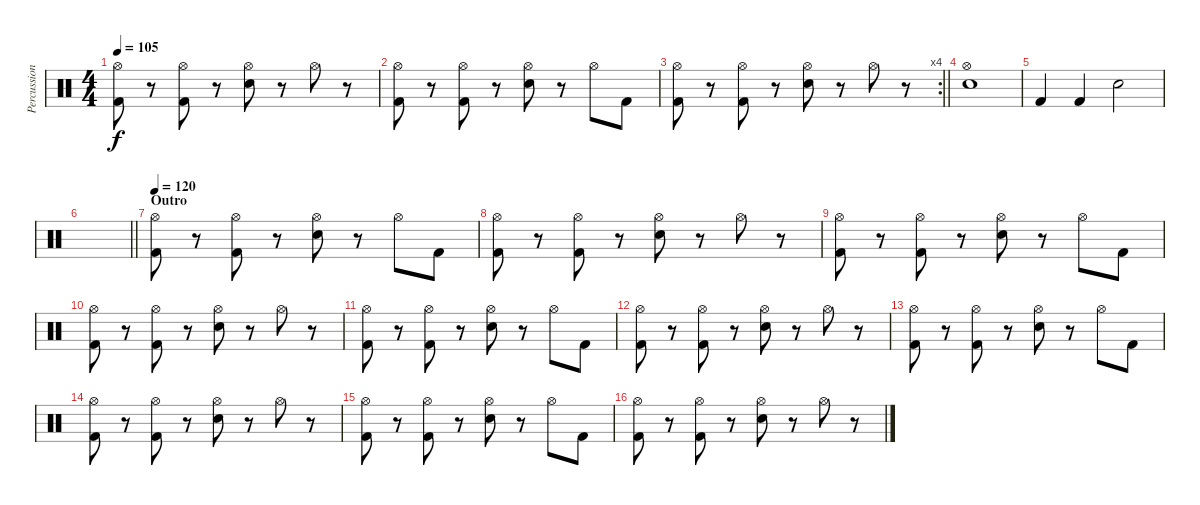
\track ("Percussion" "Percussion") {instrument percussion}
\staff {score}
\articulation defaults
\ts (4 4)
\tempo 105
\clef neutral
\ks c
("Hi-Hat (open)" "Kick (hit) 2").8{dy f} r.8 ("Hi-Hat (open)" "Kick (hit) 2").8 r.8 ("Hi-Hat (open)" "Electric Snare (hit)").8 r.8 "Hi-Hat (open)".8 r.8 |
("Hi-Hat (open)" "Kick (hit) 2").8 r.8 ("Hi-Hat (open)" "Kick (hit) 2").8 r.8 ("Hi-Hat (open)" "Electric Snare (hit)").8 r.8 "Hi-Hat (open)".8 "Kick (hit) 2".8 |
\rc 4
\barLineRight lightlight
("Hi-Hat (open)" "Kick (hit) 2").8 r.8 ("Hi-Hat (open)" "Kick (hit) 2").8 r.8 ("Hi-Hat (open)" "Electric Snare (hit)").8 r.8 "Hi-Hat (open)".8 r.8 |
("Hi-Hat (open)" "Electric Snare (hit)").1 |
"Kick (hit) 2".4 "Kick (hit) 2".4 "Electric Snare (hit)".2 |
\barLineRight lightlight
|
\section ("" "Outro")
\tempo 120
("Hi-Hat (open)" "Kick (hit) 2").8 r.8 ("Hi-Hat (open)" "Kick (hit) 2").8 r.8 ("Hi-Hat (open)" "Electric Snare (hit)").8 r.8 "Hi-Hat (open)".8 "Kick (hit) 2".8 |
("Hi-Hat (open)" "Kick (hit) 2").8 r.8 ("Hi-Hat (open)" "Kick (hit) 2").8 r.8 ("Hi-Hat (open)" "Electric Snare (hit)").8 r.8 "Hi-Hat (open)".8 r.8 |
("Hi-Hat (open)" "Kick (hit) 2").8 r.8 ("Hi-Hat (open)" "Kick (hit) 2").8 r.8 ("Hi-Hat (open)" "Electric Snare (hit)").8 r.8 "Hi-Hat (open)".8 "Kick (hit) 2".8 |
("Hi-Hat (open)" "Kick (hit) 2").8 r.8 ("Hi-Hat (open)" "Kick (hit) 2").8 r.8 ("Hi-Hat (open)" "Electric Snare (hit)").8 r.8 "Hi-Hat (open)".8 r.8 |
("Hi-Hat (open)" "Kick (hit) 2").8 r.8 ("Hi-Hat (open)" "Kick (hit) 2").8 r.8 ("Hi-Hat (open)" "Electric Snare (hit)").8 r.8 "Hi-Hat (open)".8 "Kick (hit) 2".8 |
("Hi-Hat (open)" "Kick (hit) 2").8 r.8 ("Hi-Hat (open)" "Kick (hit) 2").8 r.8 ("Hi-Hat (open)" "Electric Snare (hit)").8 r.8 "Hi-Hat (open)".8 r.8 |
("Hi-Hat (open)" "Kick (hit) 2").8 r.8 ("Hi-Hat (open)" "Kick (hit) 2").8 r.8 ("Hi-Hat (open)" "Electric Snare (hit)").8 r.8 "Hi-Hat (open)".8 "Kick (hit) 2".8 |
("Hi-Hat (open)" "Kick (hit) 2").8 r.8 ("Hi-Hat (open)" "Kick (hit) 2").8 r.8 ("Hi-Hat (open)" "Electric Snare (hit)").8 r.8 "Hi-Hat (open)".8 r.8 |
("Hi-Hat (open)" "Kick (hit) 2").8 r.8 ("Hi-Hat (open)" "Kick (hit) 2").8 r.8 ("Hi-Hat (open)" "Electric Snare (hit)").8 r.8 "Hi-Hat (open)".8 "Kick (hit) 2".8 |
("Hi-Hat (open)" "Kick (hit) 2").8 r.8 ("Hi-Hat (open)" "Kick (hit) 2").8 r.8 ("Hi-Hat (open)" "Electric Snare (hit)").8 r.8 "Hi-Hat (open)".8 r.8
